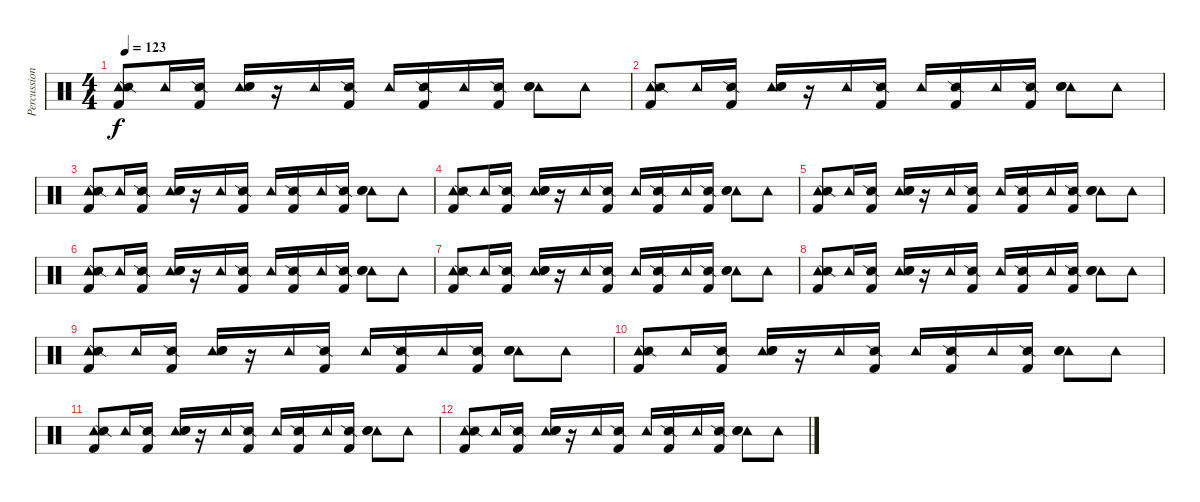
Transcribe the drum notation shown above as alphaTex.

\track ("Percussion" "Percussion") {instrument percussion}
\staff {score}
\articulation defaults
\ts (4 4)
\tempo 123
\clef neutral
\ks c
("Tambourine (hit)" "Snare (side stick) 2" "Kick (hit) 2").8{dy f} "Tambourine (hit)".16 ("Snare (side stick) 2" "Kick (hit) 2").16 ("Tambourine (hit)" "Electric Snare (hit)" "Snare (hit) 2").16 r.16 "Tambourine (hit)".16 ("Snare (side stick) 2" "Kick (hit) 2").16 "Tambourine (hit)".16 ("Snare (side stick) 2" "Kick (hit) 2").16 "Tambourine (hit)".16 ("Snare (side stick) 2" "Kick (hit) 2").16 ("Tambourine (hit)" "Electric Snare (hit)" "Snare (hit) 2").8 "Tambourine (hit)".8 |
("Tambourine (hit)" "Snare (side stick) 2" "Kick (hit) 2").8 "Tambourine (hit)".16 ("Snare (side stick) 2" "Kick (hit) 2").16 ("Tambourine (hit)" "Electric Snare (hit)" "Snare (hit) 2").16 r.16 "Tambourine (hit)".16 ("Snare (side stick) 2" "Kick (hit) 2").16 "Tambourine (hit)".16 ("Snare (side stick) 2" "Kick (hit) 2").16 "Tambourine (hit)".16 ("Snare (side stick) 2" "Kick (hit) 2").16 ("Tambourine (hit)" "Electric Snare (hit)" "Snare (hit) 2").8 "Tambourine (hit)".8 |
("Tambourine (hit)" "Snare (side stick) 2" "Kick (hit) 2").8 "Tambourine (hit)".16 ("Snare (side stick) 2" "Kick (hit) 2").16 ("Tambourine (hit)" "Electric Snare (hit)" "Snare (hit) 2").16 r.16 "Tambourine (hit)".16 ("Snare (side stick) 2" "Kick (hit) 2").16 "Tambourine (hit)".16 ("Snare (side stick) 2" "Kick (hit) 2").16 "Tambourine (hit)".16 ("Snare (side stick) 2" "Kick (hit) 2").16 ("Tambourine (hit)" "Electric Snare (hit)" "Snare (hit) 2").8 "Tambourine (hit)".8 |
("Tambourine (hit)" "Snare (side stick) 2" "Kick (hit) 2").8 "Tambourine (hit)".16 ("Snare (side stick) 2" "Kick (hit) 2").16 ("Tambourine (hit)" "Electric Snare (hit)" "Snare (hit) 2").16 r.16 "Tambourine (hit)".16 ("Snare (side stick) 2" "Kick (hit) 2").16 "Tambourine (hit)".16 ("Snare (side stick) 2" "Kick (hit) 2").16 "Tambourine (hit)".16 ("Snare (side stick) 2" "Kick (hit) 2").16 ("Tambourine (hit)" "Electric Snare (hit)" "Snare (hit) 2").8 "Tambourine (hit)".8 |
("Tambourine (hit)" "Snare (side stick) 2" "Kick (hit) 2").8 "Tambourine (hit)".16 ("Snare (side stick) 2" "Kick (hit) 2").16 ("Tambourine (hit)" "Electric Snare (hit)" "Snare (hit) 2").16 r.16 "Tambourine (hit)".16 ("Snare (side stick) 2" "Kick (hit) 2").16 "Tambourine (hit)".16 ("Snare (side stick) 2" "Kick (hit) 2").16 "Tambourine (hit)".16 ("Snare (side stick) 2" "Kick (hit) 2").16 ("Tambourine (hit)" "Electric Snare (hit)" "Snare (hit) 2").8 "Tambourine (hit)".8 |
("Tambourine (hit)" "Snare (side stick) 2" "Kick (hit) 2").8 "Tambourine (hit)".16 ("Snare (side stick) 2" "Kick (hit) 2").16 ("Tambourine (hit)" "Electric Snare (hit)" "Snare (hit) 2").16 r.16 "Tambourine (hit)".16 ("Snare (side stick) 2" "Kick (hit) 2").16 "Tambourine (hit)".16 ("Snare (side stick) 2" "Kick (hit) 2").16 "Tambourine (hit)".16 ("Snare (side stick) 2" "Kick (hit) 2").16 ("Tambourine (hit)" "Electric Snare (hit)" "Snare (hit) 2").8 "Tambourine (hit)".8 |
("Tambourine (hit)" "Snare (side stick) 2" "Kick (hit) 2").8 "Tambourine (hit)".16 ("Snare (side stick) 2" "Kick (hit) 2").16 ("Tambourine (hit)" "Electric Snare (hit)" "Snare (hit) 2").16 r.16 "Tambourine (hit)".16 ("Snare (side stick) 2" "Kick (hit) 2").16 "Tambourine (hit)".16 ("Snare (side stick) 2" "Kick (hit) 2").16 "Tambourine (hit)".16 ("Snare (side stick) 2" "Kick (hit) 2").16 ("Tambourine (hit)" "Electric Snare (hit)" "Snare (hit) 2").8 "Tambourine (hit)".8 |
("Tambourine (hit)" "Snare (side stick) 2" "Kick (hit) 2").8 "Tambourine (hit)".16 ("Snare (side stick) 2" "Kick (hit) 2").16 ("Tambourine (hit)" "Electric Snare (hit)" "Snare (hit) 2").16 r.16 "Tambourine (hit)".16 ("Snare (side stick) 2" "Kick (hit) 2").16 "Tambourine (hit)".16 ("Snare (side stick) 2" "Kick (hit) 2").16 "Tambourine (hit)".16 ("Snare (side stick) 2" "Kick (hit) 2").16 ("Tambourine (hit)" "Electric Snare (hit)" "Snare (hit) 2").8 "Tambourine (hit)".8 |
("Tambourine (hit)" "Snare (side stick) 2" "Kick (hit) 2").8 "Tambourine (hit)".16 ("Snare (side stick) 2" "Kick (hit) 2").16 ("Tambourine (hit)" "Electric Snare (hit)" "Snare (hit) 2").16 r.16 "Tambourine (hit)".16 ("Snare (side stick) 2" "Kick (hit) 2").16 "Tambourine (hit)".16 ("Snare (side stick) 2" "Kick (hit) 2").16 "Tambourine (hit)".16 ("Snare (side stick) 2" "Kick (hit) 2").16 ("Tambourine (hit)" "Electric Snare (hit)" "Snare (hit) 2").8 "Tambourine (hit)".8 |
("Tambourine (hit)" "Snare (side stick) 2" "Kick (hit) 2").8 "Tambourine (hit)".16 ("Snare (side stick) 2" "Kick (hit) 2").16 ("Tambourine (hit)" "Electric Snare (hit)" "Snare (hit) 2").16 r.16 "Tambourine (hit)".16 ("Snare (side stick) 2" "Kick (hit) 2").16 "Tambourine (hit)".16 ("Snare (side stick) 2" "Kick (hit) 2").16 "Tambourine (hit)".16 ("Snare (side stick) 2" "Kick (hit) 2").16 ("Tambourine (hit)" "Electric Snare (hit)" "Snare (hit) 2").8 "Tambourine (hit)".8 |
("Tambourine (hit)" "Snare (side stick) 2" "Kick (hit) 2").8 "Tambourine (hit)".16 ("Snare (side stick) 2" "Kick (hit) 2").16 ("Tambourine (hit)" "Electric Snare (hit)" "Snare (hit) 2").16 r.16 "Tambourine (hit)".16 ("Snare (side stick) 2" "Kick (hit) 2").16 "Tambourine (hit)".16 ("Snare (side stick) 2" "Kick (hit) 2").16 "Tambourine (hit)".16 ("Snare (side stick) 2" "Kick (hit) 2").16 ("Tambourine (hit)" "Electric Snare (hit)" "Snare (hit) 2").8 "Tambourine (hit)".8 |
("Tambourine (hit)" "Snare (side stick) 2" "Kick (hit) 2").8 "Tambourine (hit)".16 ("Snare (side stick) 2" "Kick (hit) 2").16 ("Tambourine (hit)" "Electric Snare (hit)" "Snare (hit) 2").16 r.16 "Tambourine (hit)".16 ("Snare (side stick) 2" "Kick (hit) 2").16 "Tambourine (hit)".16 ("Snare (side stick) 2" "Kick (hit) 2").16 "Tambourine (hit)".16 ("Snare (side stick) 2" "Kick (hit) 2").16 ("Tambourine (hit)" "Electric Snare (hit)" "Snare (hit) 2").8 "Tambourine (hit)".8
